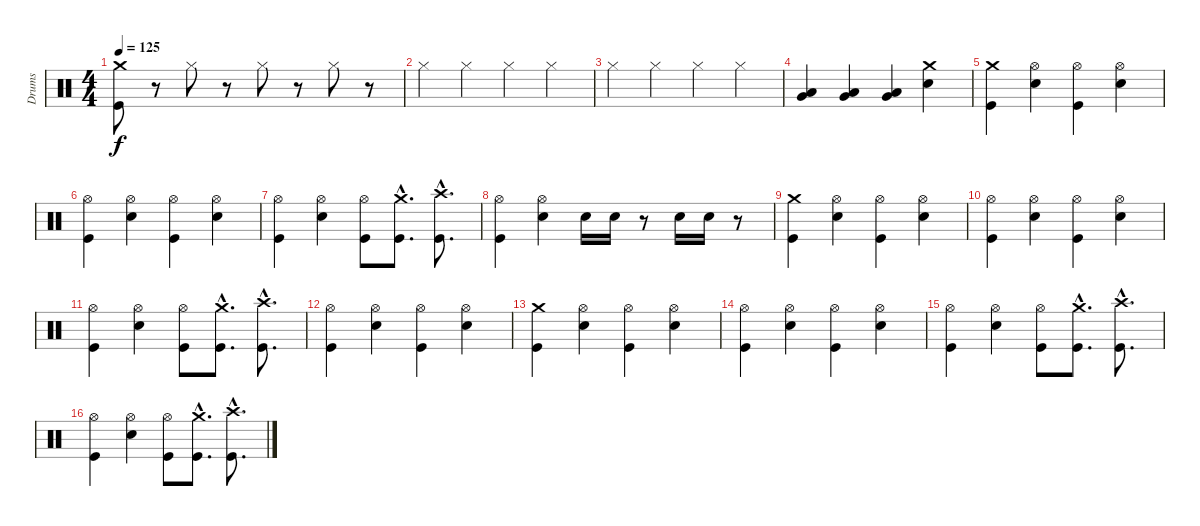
\track ("Drums" "Drums") {instrument percussion}
\staff {score}
\articulation defaults
\ts (4 4)
\tempo 125
\clef neutral
\ks c
("Crash medium (hit)" "Kick (hit)").8{dy f} r.8 "Hi-Hat (closed)".8 r.8 "Hi-Hat (closed)".8 r.8 "Hi-Hat (closed)".8 r.8 |
"Hi-Hat (closed)".4 "Hi-Hat (closed)".4 "Hi-Hat (closed)".4 "Hi-Hat (closed)".4 |
"Hi-Hat (closed)".4 "Hi-Hat (closed)".4 "Hi-Hat (closed)".4 "Hi-Hat (closed)".4 |
("Very Low Tom (hit)" "Low Floor Tom (hit)").4 ("Very Low Tom (hit)" "Low Floor Tom (hit)").4 ("Very Low Tom (hit)" "Low Floor Tom (hit)").4 ("Crash medium (hit)" "Electric Snare (hit)").4 |
("Crash medium (hit)" "Kick (hit)").4 ("Hi-Hat (open)" "Electric Snare (hit)").4 ("Hi-Hat (open)" "Kick (hit)").4 ("Hi-Hat (open)" "Electric Snare (hit)").4 |
("Hi-Hat (open)" "Kick (hit)").4 ("Hi-Hat (open)" "Electric Snare (hit)").4 ("Hi-Hat (open)" "Kick (hit)").4 ("Hi-Hat (open)" "Electric Snare (hit)").4 |
("Hi-Hat (open)" "Kick (hit)").4 ("Hi-Hat (open)" "Electric Snare (hit)").4 ("Hi-Hat (open)" "Kick (hit)").8 ("Crash medium (hit)"{hac} "Kick (hit)"{hac}).8{d} ("Crash high (hit)"{hac} "Kick (hit)"{hac}).8{d} |
("Hi-Hat (open)" "Kick (hit)").4 ("Hi-Hat (open)" "Electric Snare (hit)").4 "Electric Snare (hit)".16 "Electric Snare (hit)".16 r.8 "Electric Snare (hit)".16 "Electric Snare (hit)".16 r.8 |
("Crash medium (hit)" "Kick (hit)").4 ("Hi-Hat (open)" "Electric Snare (hit)").4 ("Hi-Hat (open)" "Kick (hit)").4 ("Hi-Hat (open)" "Electric Snare (hit)").4 |
("Hi-Hat (open)" "Kick (hit)").4 ("Hi-Hat (open)" "Electric Snare (hit)").4 ("Hi-Hat (open)" "Kick (hit)").4 ("Hi-Hat (open)" "Electric Snare (hit)").4 |
("Hi-Hat (open)" "Kick (hit)").4 ("Hi-Hat (open)" "Electric Snare (hit)").4 ("Hi-Hat (open)" "Kick (hit)").8 ("Crash medium (hit)"{hac} "Kick (hit)"{hac}).8{d} ("Crash high (hit)"{hac} "Kick (hit)"{hac}).8{d} |
("Hi-Hat (open)" "Kick (hit)").4 ("Hi-Hat (open)" "Electric Snare (hit)").4 ("Hi-Hat (open)" "Kick (hit)").4 ("Hi-Hat (open)" "Electric Snare (hit)").4 |
("Crash medium (hit)" "Kick (hit)").4 ("Hi-Hat (open)" "Electric Snare (hit)").4 ("Hi-Hat (open)" "Kick (hit)").4 ("Hi-Hat (open)" "Electric Snare (hit)").4 |
("Hi-Hat (open)" "Kick (hit)").4 ("Hi-Hat (open)" "Electric Snare (hit)").4 ("Hi-Hat (open)" "Kick (hit)").4 ("Hi-Hat (open)" "Electric Snare (hit)").4 |
("Hi-Hat (open)" "Kick (hit)").4 ("Hi-Hat (open)" "Electric Snare (hit)").4 ("Hi-Hat (open)" "Kick (hit)").8 ("Crash medium (hit)"{hac} "Kick (hit)"{hac}).8{d} ("Crash high (hit)"{hac} "Kick (hit)"{hac}).8{d} |
("Hi-Hat (open)" "Kick (hit)").4 ("Hi-Hat (open)" "Electric Snare (hit)").4 ("Hi-Hat (open)" "Kick (hit)").8 ("Crash medium (hit)"{hac} "Kick (hit)"{hac}).8{d} ("Crash high (hit)"{hac} "Kick (hit)"{hac}).8{d}
